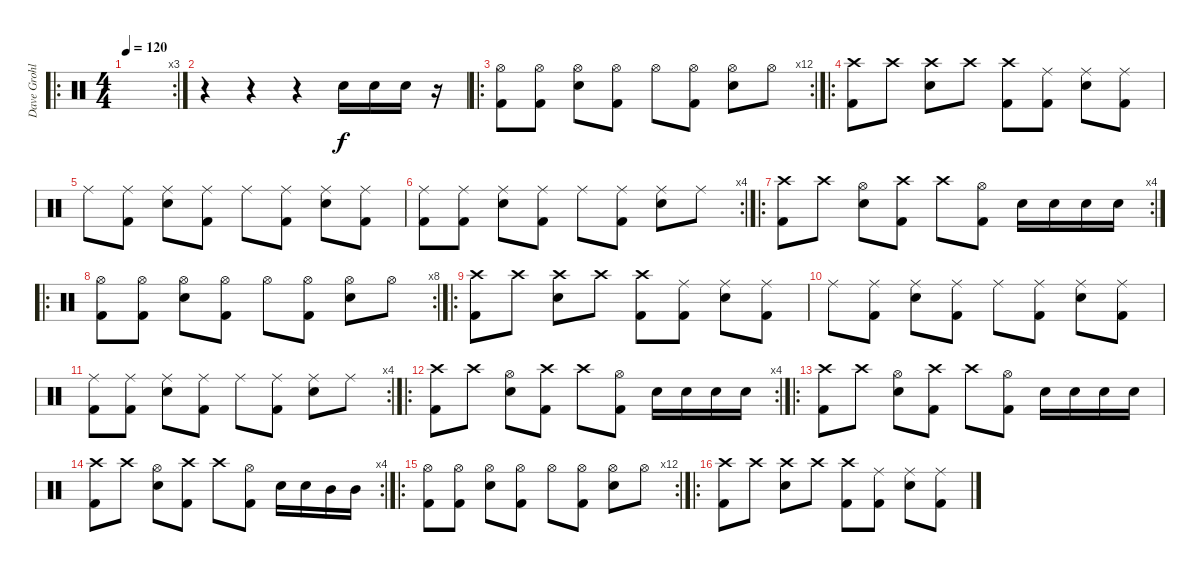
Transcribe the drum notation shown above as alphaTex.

\track ("Dave Grohl" "Dave Grohl") {instrument percussion}
\staff {score}
\articulation defaults
\ro
\rc 3
\ts (4 4)
\tempo 120
\clef neutral
\ks c
|
r.4 r.4 r.4 "Electric Snare (hit)".16 "Electric Snare (hit)".16 "Electric Snare (hit)".16 r.16 |
\ro
\rc 12
("Hi-Hat (open)" "Kick (hit) 2").8 ("Hi-Hat (open)" "Kick (hit) 2").8 ("Hi-Hat (open)" "Electric Snare (hit)").8 ("Hi-Hat (open)" "Kick (hit) 2").8 "Hi-Hat (open)".8 ("Hi-Hat (open)" "Kick (hit) 2").8 ("Hi-Hat (open)" "Electric Snare (hit)").8 "Hi-Hat (open)".8 |
\ro
("Crash high (hit)" "Kick (hit) 2").8 "Crash high (hit)"{x}.8 ("Crash high (hit)" "Electric Snare (hit)").8 "Crash high (hit)"{x}.8 ("Crash high (hit)" "Kick (hit) 2").8 ("Ride (middle)"{x} "Kick (hit) 2").8 ("Ride (middle)" "Electric Snare (hit)").8 ("Ride (middle)" "Kick (hit) 2").8 |
"Ride (middle)".8 ("Ride (middle)" "Kick (hit) 2").8 ("Ride (middle)" "Electric Snare (hit)").8 ("Ride (middle)" "Kick (hit) 2").8 "Ride (middle)".8 ("Ride (middle)" "Kick (hit) 2").8 ("Ride (middle)" "Electric Snare (hit)").8 ("Ride (middle)" "Kick (hit) 2").8 |
\rc 4
("Ride (middle)" "Kick (hit) 2").8 ("Ride (middle)" "Kick (hit) 2").8 ("Ride (middle)" "Electric Snare (hit)").8 ("Ride (middle)" "Kick (hit) 2").8 "Ride (middle)".8 ("Ride (middle)" "Kick (hit) 2").8 ("Ride (middle)" "Electric Snare (hit)").8 "Ride (middle)".8 |
\ro
\rc 4
("Crash high (hit)" "Kick (hit) 2").8 "Crash high (hit)"{x}.8 ("Hi-Hat (open)" "Electric Snare (hit)").8 ("Crash high (hit)" "Kick (hit) 2").8 "Crash high (hit)"{x}.8 ("Hi-Hat (open)" "Kick (hit) 2").8 "Electric Snare (hit)".16 "Electric Snare (hit)".16 "Electric Snare (hit)".16 "Electric Snare (hit)".16 |
\ro
\rc 8
("Hi-Hat (open)" "Kick (hit) 2").8 ("Hi-Hat (open)" "Kick (hit) 2").8 ("Hi-Hat (open)" "Electric Snare (hit)").8 ("Hi-Hat (open)" "Kick (hit) 2").8 "Hi-Hat (open)".8 ("Hi-Hat (open)" "Kick (hit) 2").8 ("Hi-Hat (open)" "Electric Snare (hit)").8 "Hi-Hat (open)".8 |
\ro
("Crash high (hit)" "Kick (hit) 2").8 "Crash high (hit)"{x}.8 ("Crash high (hit)" "Electric Snare (hit)").8 "Crash high (hit)"{x}.8 ("Crash high (hit)" "Kick (hit) 2").8 ("Ride (middle)"{x} "Kick (hit) 2").8 ("Ride (middle)" "Electric Snare (hit)").8 ("Ride (middle)" "Kick (hit) 2").8 |
"Ride (middle)".8 ("Ride (middle)" "Kick (hit) 2").8 ("Ride (middle)" "Electric Snare (hit)").8 ("Ride (middle)" "Kick (hit) 2").8 "Ride (middle)".8 ("Ride (middle)" "Kick (hit) 2").8 ("Ride (middle)" "Electric Snare (hit)").8 ("Ride (middle)" "Kick (hit) 2").8 |
\rc 4
("Ride (middle)" "Kick (hit) 2").8 ("Ride (middle)" "Kick (hit) 2").8 ("Ride (middle)" "Electric Snare (hit)").8 ("Ride (middle)" "Kick (hit) 2").8 "Ride (middle)".8 ("Ride (middle)" "Kick (hit) 2").8 ("Ride (middle)" "Electric Snare (hit)").8 "Ride (middle)".8 |
\ro
\rc 4
("Crash high (hit)" "Kick (hit) 2").8 "Crash high (hit)"{x}.8 ("Hi-Hat (open)" "Electric Snare (hit)").8 ("Crash high (hit)" "Kick (hit) 2").8 "Crash high (hit)"{x}.8 ("Hi-Hat (open)" "Kick (hit) 2").8 "Electric Snare (hit)".16 "Electric Snare (hit)".16 "Electric Snare (hit)".16 "Electric Snare (hit)".16 |
\ro
("Crash high (hit)" "Kick (hit) 2").8 "Crash high (hit)"{x}.8 ("Hi-Hat (open)" "Electric Snare (hit)").8 ("Crash high (hit)" "Kick (hit) 2").8 "Crash high (hit)"{x}.8 ("Hi-Hat (open)" "Kick (hit) 2").8 "Electric Snare (hit)".16 "Electric Snare (hit)".16 "Electric Snare (hit)".16 "Electric Snare (hit)".16 |
\rc 4
("Crash high (hit)" "Kick (hit) 2").8 "Crash high (hit)"{x}.8 ("Hi-Hat (open)" "Electric Snare (hit)").8 ("Crash high (hit)" "Kick (hit) 2").8 "Crash high (hit)"{x}.8 ("Hi-Hat (open)" "Kick (hit) 2").8 "Electric Snare (hit)".16 "Electric Snare (hit)".16 "Mid Tom (hit)".16 "Mid Tom (hit)".16 |
\ro
\rc 12
("Hi-Hat (open)" "Kick (hit) 2").8 ("Hi-Hat (open)" "Kick (hit) 2").8 ("Hi-Hat (open)" "Electric Snare (hit)").8 ("Hi-Hat (open)" "Kick (hit) 2").8 "Hi-Hat (open)".8 ("Hi-Hat (open)" "Kick (hit) 2").8 ("Hi-Hat (open)" "Electric Snare (hit)").8 "Hi-Hat (open)".8 |
\ro
("Crash high (hit)" "Kick (hit) 2").8 "Crash high (hit)"{x}.8 ("Crash high (hit)" "Electric Snare (hit)").8 "Crash high (hit)"{x}.8 ("Crash high (hit)" "Kick (hit) 2").8 ("Ride (middle)"{x} "Kick (hit) 2").8 ("Ride (middle)" "Electric Snare (hit)").8 ("Ride (middle)" "Kick (hit) 2").8
